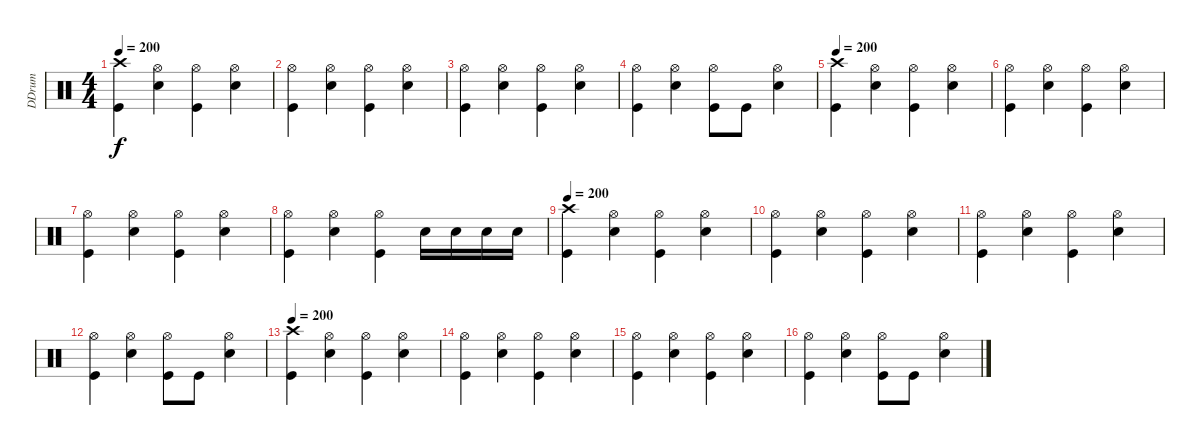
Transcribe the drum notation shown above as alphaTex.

\track ("DDrum" "DDrum") {instrument percussion}
\staff {score}
\articulation defaults
\ts (4 4)
\tempo 200
\clef neutral
\ks c
("Crash high (hit)" "Kick (hit)").4{dy f} ("Hi-Hat (open)" "Electric Snare (hit)").4 ("Hi-Hat (open)" "Kick (hit)").4 ("Hi-Hat (open)" "Electric Snare (hit)").4 |
("Hi-Hat (open)" "Kick (hit)").4 ("Hi-Hat (open)" "Electric Snare (hit)").4 ("Hi-Hat (open)" "Kick (hit)").4 ("Hi-Hat (open)" "Electric Snare (hit)").4 |
("Hi-Hat (open)" "Kick (hit)").4 ("Hi-Hat (open)" "Electric Snare (hit)").4 ("Hi-Hat (open)" "Kick (hit)").4 ("Hi-Hat (open)" "Electric Snare (hit)").4 |
("Hi-Hat (open)" "Kick (hit)").4 ("Hi-Hat (open)" "Electric Snare (hit)").4 ("Hi-Hat (open)" "Kick (hit)").8 "Kick (hit)".8 ("Hi-Hat (open)" "Electric Snare (hit)").4 |
\tempo 200
("Crash high (hit)" "Kick (hit)").4 ("Hi-Hat (open)" "Electric Snare (hit)").4 ("Hi-Hat (open)" "Kick (hit)").4 ("Hi-Hat (open)" "Electric Snare (hit)").4 |
("Hi-Hat (open)" "Kick (hit)").4 ("Hi-Hat (open)" "Electric Snare (hit)").4 ("Hi-Hat (open)" "Kick (hit)").4 ("Hi-Hat (open)" "Electric Snare (hit)").4 |
("Hi-Hat (open)" "Kick (hit)").4 ("Hi-Hat (open)" "Electric Snare (hit)").4 ("Hi-Hat (open)" "Kick (hit)").4 ("Hi-Hat (open)" "Electric Snare (hit)").4 |
("Hi-Hat (open)" "Kick (hit)").4 ("Hi-Hat (open)" "Electric Snare (hit)").4 ("Hi-Hat (open)" "Kick (hit)").4 "Electric Snare (hit)".16 "Electric Snare (hit)".16 "Electric Snare (hit)".16 "Electric Snare (hit)".16 |
\tempo 200
("Crash high (hit)" "Kick (hit)").4 ("Hi-Hat (open)" "Electric Snare (hit)").4 ("Hi-Hat (open)" "Kick (hit)").4 ("Hi-Hat (open)" "Electric Snare (hit)").4 |
("Hi-Hat (open)" "Kick (hit)").4 ("Hi-Hat (open)" "Electric Snare (hit)").4 ("Hi-Hat (open)" "Kick (hit)").4 ("Hi-Hat (open)" "Electric Snare (hit)").4 |
("Hi-Hat (open)" "Kick (hit)").4 ("Hi-Hat (open)" "Electric Snare (hit)").4 ("Hi-Hat (open)" "Kick (hit)").4 ("Hi-Hat (open)" "Electric Snare (hit)").4 |
("Hi-Hat (open)" "Kick (hit)").4 ("Hi-Hat (open)" "Electric Snare (hit)").4 ("Hi-Hat (open)" "Kick (hit)").8 "Kick (hit)".8 ("Hi-Hat (open)" "Electric Snare (hit)").4 |
\tempo 200
("Crash high (hit)" "Kick (hit)").4 ("Hi-Hat (open)" "Electric Snare (hit)").4 ("Hi-Hat (open)" "Kick (hit)").4 ("Hi-Hat (open)" "Electric Snare (hit)").4 |
("Hi-Hat (open)" "Kick (hit)").4 ("Hi-Hat (open)" "Electric Snare (hit)").4 ("Hi-Hat (open)" "Kick (hit)").4 ("Hi-Hat (open)" "Electric Snare (hit)").4 |
("Hi-Hat (open)" "Kick (hit)").4 ("Hi-Hat (open)" "Electric Snare (hit)").4 ("Hi-Hat (open)" "Kick (hit)").4 ("Hi-Hat (open)" "Electric Snare (hit)").4 |
("Hi-Hat (open)" "Kick (hit)").4 ("Hi-Hat (open)" "Electric Snare (hit)").4 ("Hi-Hat (open)" "Kick (hit)").8 "Kick (hit)".8 ("Hi-Hat (open)" "Electric Snare (hit)").4
